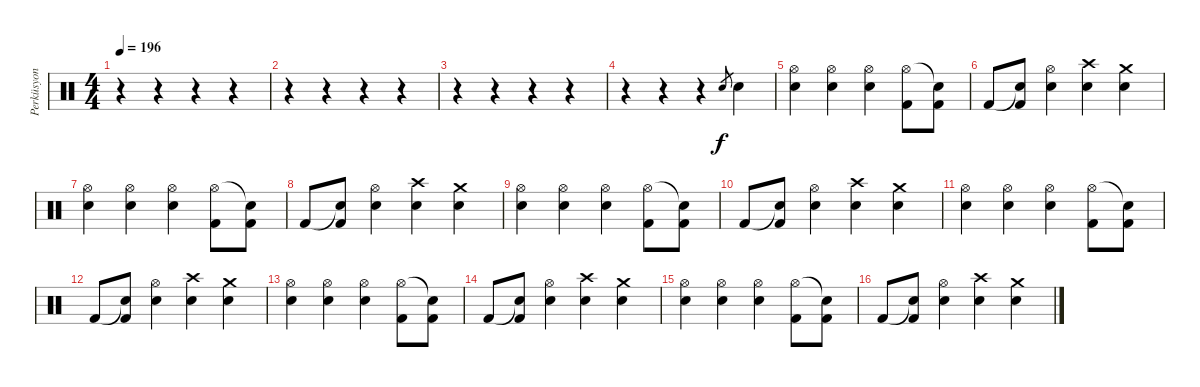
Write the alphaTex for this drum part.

\track ("Perküsyon" "Perküsyon") {instrument percussion}
\staff {score}
\articulation defaults
\ts (4 4)
\tempo 196
\clef neutral
\ks c
r.4{dy f} r.4 r.4 r.4 |
r.4 r.4 r.4 r.4 |
r.4 r.4 r.4 r.4 |
r.4 r.4 r.4 "Electric Snare (hit)".8{gr} "Electric Snare (hit)".4 |
("Electric Snare (hit)" "Hi-Hat (open)").4 ("Electric Snare (hit)" "Hi-Hat (open)").4 ("Electric Snare (hit)" "Hi-Hat (open)").4 ("Hi-Hat (open)" "Kick (hit) 2").8 ("Snare (hit)"{t} "Kick (hit) 2").8 |
"Kick (hit) 2".8 ("Snare (hit)"{t} "Kick (hit) 2").8 ("Electric Snare (hit)" "Hi-Hat (open)").4 ("Snare (hit) 2" "Crash high (hit)").4 ("Crash medium (hit)" "Snare (hit) 2").4 |
("Electric Snare (hit)" "Hi-Hat (open)").4 ("Electric Snare (hit)" "Hi-Hat (open)").4 ("Electric Snare (hit)" "Hi-Hat (open)").4 ("Hi-Hat (open)" "Kick (hit) 2").8 ("Snare (hit)"{t} "Kick (hit) 2").8 |
"Kick (hit) 2".8 ("Snare (hit)"{t} "Kick (hit) 2").8 ("Electric Snare (hit)" "Hi-Hat (open)").4 ("Snare (hit) 2" "Crash high (hit)").4 ("Crash medium (hit)" "Snare (hit) 2").4 |
("Electric Snare (hit)" "Hi-Hat (open)").4 ("Electric Snare (hit)" "Hi-Hat (open)").4 ("Electric Snare (hit)" "Hi-Hat (open)").4 ("Hi-Hat (open)" "Kick (hit) 2").8 ("Snare (hit)"{t} "Kick (hit) 2").8 |
"Kick (hit) 2".8 ("Snare (hit)"{t} "Kick (hit) 2").8 ("Electric Snare (hit)" "Hi-Hat (open)").4 ("Snare (hit) 2" "Crash high (hit)").4 ("Crash medium (hit)" "Snare (hit) 2").4 |
("Electric Snare (hit)" "Hi-Hat (open)").4 ("Electric Snare (hit)" "Hi-Hat (open)").4 ("Electric Snare (hit)" "Hi-Hat (open)").4 ("Hi-Hat (open)" "Kick (hit) 2").8 ("Snare (hit)"{t} "Kick (hit) 2").8 |
"Kick (hit) 2".8 ("Snare (hit)"{t} "Kick (hit) 2").8 ("Electric Snare (hit)" "Hi-Hat (open)").4 ("Snare (hit) 2" "Crash high (hit)").4 ("Crash medium (hit)" "Snare (hit) 2").4 |
("Electric Snare (hit)" "Hi-Hat (open)").4 ("Electric Snare (hit)" "Hi-Hat (open)").4 ("Electric Snare (hit)" "Hi-Hat (open)").4 ("Hi-Hat (open)" "Kick (hit) 2").8 ("Snare (hit)"{t} "Kick (hit) 2").8 |
"Kick (hit) 2".8 ("Snare (hit)"{t} "Kick (hit) 2").8 ("Electric Snare (hit)" "Hi-Hat (open)").4 ("Snare (hit) 2" "Crash high (hit)").4 ("Crash medium (hit)" "Snare (hit) 2").4 |
("Electric Snare (hit)" "Hi-Hat (open)").4 ("Electric Snare (hit)" "Hi-Hat (open)").4 ("Electric Snare (hit)" "Hi-Hat (open)").4 ("Hi-Hat (open)" "Kick (hit) 2").8 ("Snare (hit)"{t} "Kick (hit) 2").8 |
"Kick (hit) 2".8 ("Snare (hit)"{t} "Kick (hit) 2").8 ("Electric Snare (hit)" "Hi-Hat (open)").4 ("Snare (hit) 2" "Crash high (hit)").4 ("Crash medium (hit)" "Snare (hit) 2").4
